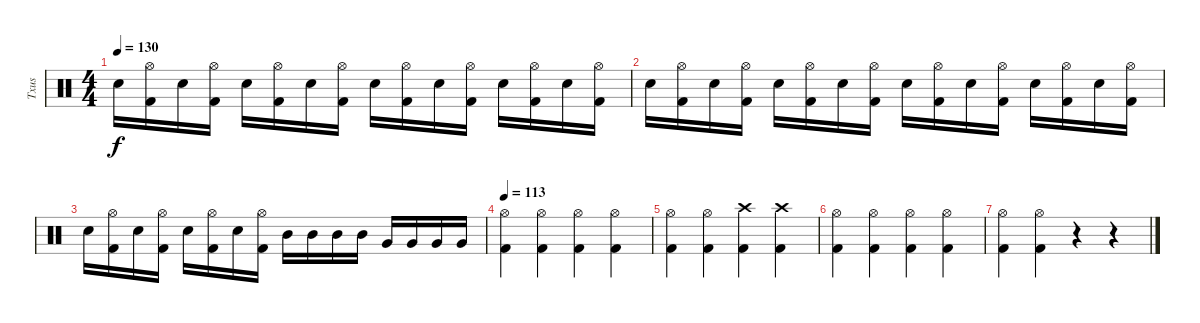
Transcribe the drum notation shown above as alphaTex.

\track ("Txus" "Txus") {instrument percussion}
\staff {score}
\articulation defaults
\ts (4 4)
\tempo 130
\clef neutral
\ks c "Snare (hit) 2".16{dy f}
("Hi-Hat (open)" "Kick (hit) 2").16 "Snare (hit) 2".16 ("Hi-Hat (open)" "Kick (hit) 2").16 "Snare (hit) 2".16 ("Hi-Hat (open)" "Kick (hit) 2").16 "Snare (hit) 2".16 ("Hi-Hat (open)" "Kick (hit) 2").16 "Snare (hit) 2".16 ("Hi-Hat (open)" "Kick (hit) 2").16 "Snare (hit) 2".16 ("Hi-Hat (open)" "Kick (hit) 2").16 "Snare (hit) 2".16 ("Hi-Hat (open)" "Kick (hit) 2").16 "Snare (hit) 2".16 ("Hi-Hat (open)" "Kick (hit) 2").16 |
"Snare (hit) 2".16 ("Hi-Hat (open)" "Kick (hit) 2").16 "Snare (hit) 2".16 ("Hi-Hat (open)" "Kick (hit) 2").16 "Snare (hit) 2".16 ("Hi-Hat (open)" "Kick (hit) 2").16 "Snare (hit) 2".16 ("Hi-Hat (open)" "Kick (hit) 2").16 "Snare (hit) 2".16 ("Hi-Hat (open)" "Kick (hit) 2").16 "Snare (hit) 2".16 ("Hi-Hat (open)" "Kick (hit) 2").16 "Snare (hit) 2".16 ("Hi-Hat (open)" "Kick (hit) 2").16 "Snare (hit) 2".16 ("Hi-Hat (open)" "Kick (hit) 2").16 |
"Snare (hit) 2".16 ("Hi-Hat (open)" "Kick (hit) 2").16 "Snare (hit) 2".16 ("Hi-Hat (open)" "Kick (hit) 2").16 "Snare (hit) 2".16 ("Hi-Hat (open)" "Kick (hit) 2").16 "Snare (hit) 2".16 ("Hi-Hat (open)" "Kick (hit) 2").16 "Mid Tom (hit)".16 "Mid Tom (hit)".16 "Mid Tom (hit)".16 "Mid Tom (hit)".16 "Very Low Tom (hit)".16 "Very Low Tom (hit)".16 "Very Low Tom (hit)".16 "Very Low Tom (hit)".16 |
\tempo 113
("Hi-Hat (open)" "Kick (hit) 2").4 ("Hi-Hat (open)" "Kick (hit) 2").4 ("Hi-Hat (open)" "Kick (hit) 2").4 ("Hi-Hat (open)" "Kick (hit) 2").4 |
("Hi-Hat (open)" "Kick (hit) 2").4 ("Hi-Hat (open)" "Kick (hit) 2").4 ("Crash high (hit)" "Kick (hit) 2").4 ("Crash high (hit)" "Kick (hit) 2").4 |
("Hi-Hat (open)" "Kick (hit) 2").4 ("Hi-Hat (open)" "Kick (hit) 2").4 ("Hi-Hat (open)" "Kick (hit) 2").4 ("Hi-Hat (open)" "Kick (hit) 2").4 |
("Hi-Hat (open)" "Kick (hit) 2").4 ("Hi-Hat (open)" "Kick (hit) 2").4 r.4 r.4
